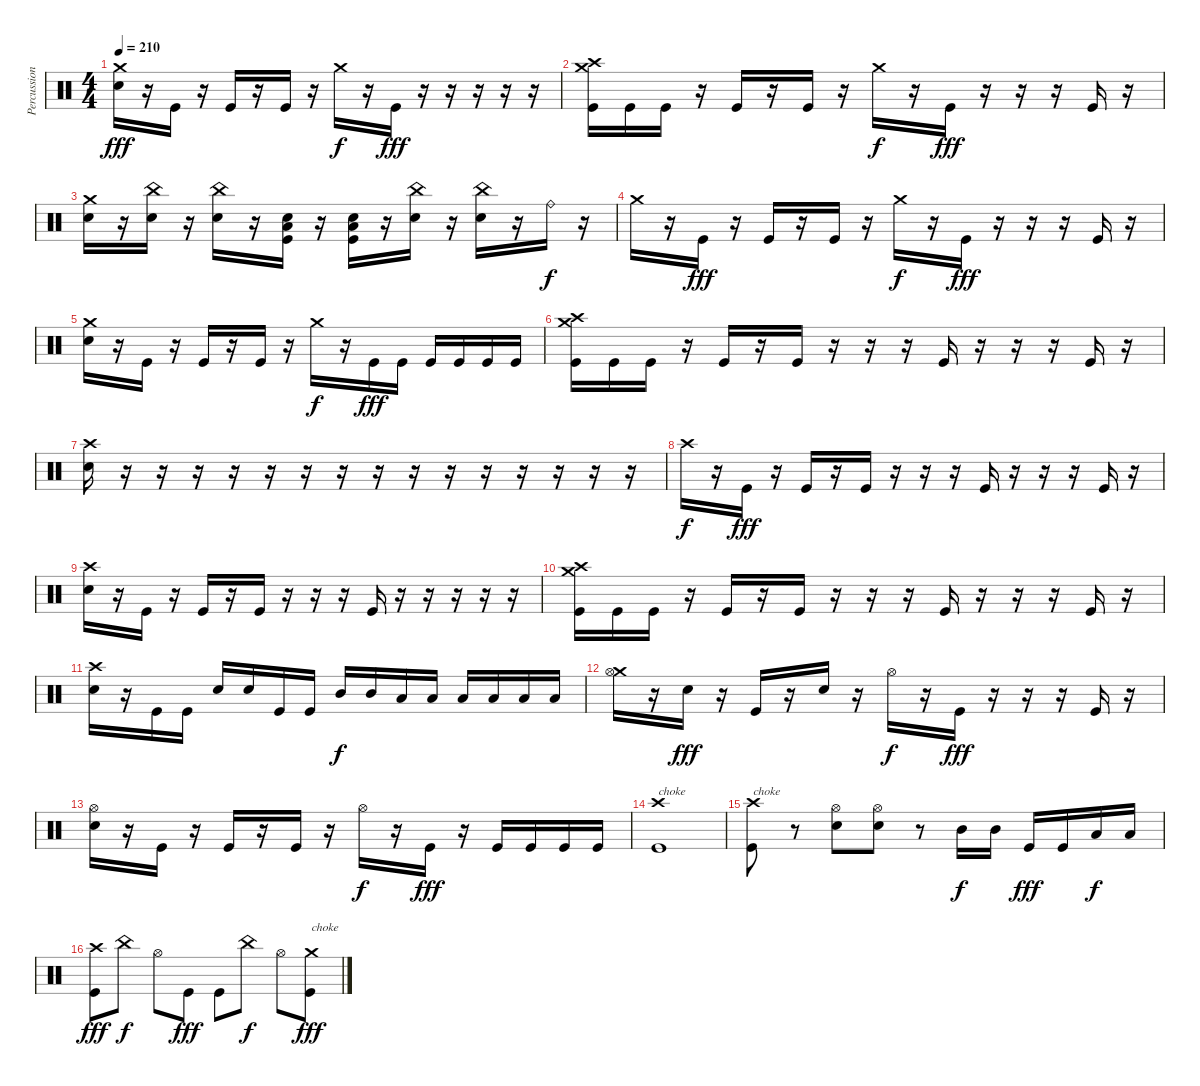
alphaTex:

\track ("Percussion" "Percussion") {instrument percussion}
\staff {score}
\articulation defaults
\ts (4 4)
\tempo 210
\clef neutral
\ks c
("Crash medium (hit)" "Snare (hit) 2").16{dy fff} r.16 "Kick (hit)".16 r.16 "Kick (hit)".16 r.16 "Kick (hit)".16 r.16 "Crash medium (hit)".16{dy f} r.16 "Kick (hit)".16{dy fff} r.16 r.16 r.16 r.16 r.16 |
("Crash high (hit)" "Crash medium (hit)" "Kick (hit)").16 "Kick (hit)".16 "Kick (hit)".16 r.16 "Kick (hit)".16 r.16 "Kick (hit)".16 r.16 "Crash medium (hit)".16{dy f} r.16 "Kick (hit)".16{dy fff} r.16 r.16 r.16 "Kick (hit)".16 r.16 |
("Crash medium (hit)" "Snare (hit) 2").16 r.16 ("China (hit)" "Snare (hit) 2").16 r.16 ("China (hit)" "Snare (hit) 2").16 r.16 ("Snare (hit) 2" "Low Floor Tom (hit)" "Kick (hit)").16 r.16 ("Snare (hit) 2" "Low Floor Tom (hit)" "Kick (hit)").16 r.16 ("China (hit)" "Snare (hit) 2").16 r.16 ("China (hit)" "Snare (hit) 2").16 r.16 "Ride (bell)".16{dy f} r.16 |
"Crash medium (hit)".16 r.16 "Kick (hit)".16{dy fff} r.16 "Kick (hit)".16 r.16 "Kick (hit)".16 r.16 "Crash medium (hit)".16{dy f} r.16 "Kick (hit)".16{dy fff} r.16 r.16 r.16 "Kick (hit)".16 r.16 |
("Crash medium (hit)" "Snare (hit) 2").16 r.16 "Kick (hit)".16 r.16 "Kick (hit)".16 r.16 "Kick (hit)".16 r.16 "Crash medium (hit)".16{dy f} r.16 "Kick (hit)".16{dy fff} "Kick (hit)".16 "Kick (hit)".16 "Kick (hit)".16 "Kick (hit)".16 "Kick (hit)".16 |
("Crash high (hit)" "Crash medium (hit)" "Kick (hit)").16 "Kick (hit)".16 "Kick (hit)".16 r.16 "Kick (hit)".16 r.16 "Kick (hit)".16 r.16 r.16 r.16 "Kick (hit)".16 r.16 r.16 r.16 "Kick (hit)".16 r.16 |
("Crash high (hit)" "Snare (hit) 2").16 r.16 r.16 r.16 r.16 r.16 r.16 r.16 r.16 r.16 r.16 r.16 r.16 r.16 r.16 r.16 |
"Crash high (hit)".16{dy f} r.16 "Kick (hit)".16{dy fff} r.16 "Kick (hit)".16 r.16 "Kick (hit)".16 r.16 r.16 r.16 "Kick (hit)".16 r.16 r.16 r.16 "Kick (hit)".16 r.16 |
("Crash high (hit)" "Snare (hit) 2").16 r.16 "Kick (hit)".16 r.16 "Kick (hit)".16 r.16 "Kick (hit)".16 r.16 r.16 r.16 "Kick (hit)".16 r.16 r.16 r.16 r.16 r.16 |
("Crash high (hit)" "Crash medium (hit)" "Kick (hit)").16 "Kick (hit)".16 "Kick (hit)".16 r.16 "Kick (hit)".16 r.16 "Kick (hit)".16 r.16 r.16 r.16 "Kick (hit)".16 r.16 r.16 r.16 "Kick (hit)".16 r.16 |
("Crash high (hit)" "Snare (hit) 2").16 r.16 "Kick (hit)".16 "Kick (hit)".16 "Snare (hit) 2".16 "Snare (hit) 2".16 "Kick (hit)".16 "Kick (hit)".16 "Mid Tom (hit)".16{dy f} "Mid Tom (hit)".16 "Low Floor Tom (hit)".16 "Low Floor Tom (hit)".16 "Low Floor Tom (hit)".16 "Low Floor Tom (hit)".16 "Low Floor Tom (hit)".16 "Low Floor Tom (hit)".16 |
("Crash medium (hit)" "Hi-Hat (open)").16 r.16 "Snare (hit) 2".16{dy fff} r.16 "Kick (hit)".16 r.16 "Snare (hit) 2".16 r.16 "Hi-Hat (open)".16{dy f} r.16 "Kick (hit)".16{dy fff} r.16 r.16 r.16 "Kick (hit)".16 r.16 |
("Hi-Hat (open)" "Snare (hit) 2").16 r.16 "Kick (hit)".16 r.16 "Kick (hit)".16 r.16 "Kick (hit)".16 r.16 "Hi-Hat (open)".16{dy f} r.16 "Kick (hit)".16{dy fff} r.16 "Kick (hit)".16 "Kick (hit)".16 "Kick (hit)".16 "Kick (hit)".16 |
("Crash high (hit)" "Kick (hit)").1{txt "choke"} |
("Crash high (hit)" "Kick (hit)").8{txt "choke"} r.8 ("Hi-Hat (open)" "Snare (hit) 2").8 ("Hi-Hat (open)" "Snare (hit) 2").8 r.8 "Mid Tom (hit)".16{dy f} "Mid Tom (hit)".16 "Kick (hit)".16{dy fff} "Kick (hit)".16 "Low Floor Tom (hit)".16{dy f} "Low Floor Tom (hit)".16 |
("Crash high (hit)" "Kick (hit)").8{dy fff} "China (hit)".8{dy f} "Hi-Hat (open)".8 "Kick (hit)".8{dy fff} "Kick (hit)".8 "China (hit)".8{dy f} "Hi-Hat (open)".8 ("Crash medium (hit)" "Kick (hit)").8{txt "choke" dy fff}
